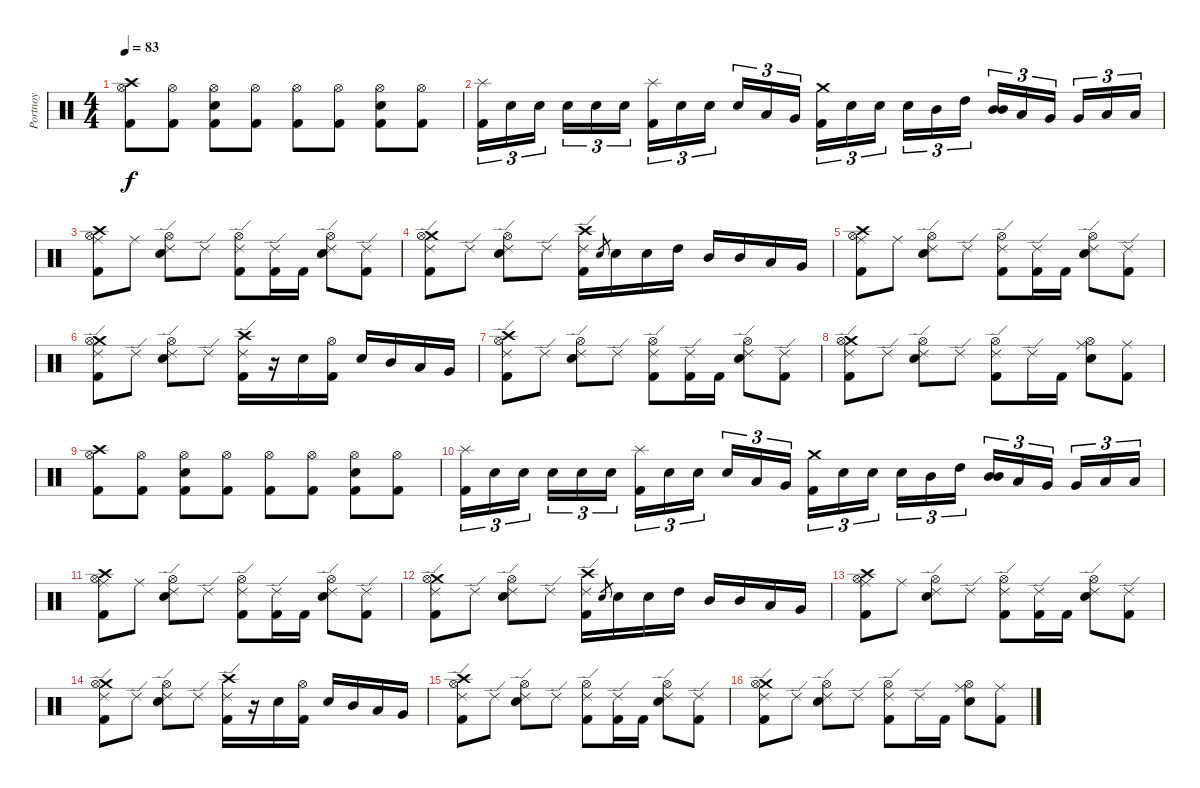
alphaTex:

\track ("Portnoy" "Portnoy") {instrument percussion}
\staff {score}
\articulation defaults
\ts (4 4)
\tempo 83
\clef neutral
\ks c
("Hi-Hat (open)" "Crash high (hit)" "Kick (hit) 2").8{dy f} ("Hi-Hat (open)" "Kick (hit) 2").8 ("Hi-Hat (open)" "Electric Snare (hit)" "Kick (hit) 2").8 ("Hi-Hat (open)" "Kick (hit) 2").8 ("Hi-Hat (open)" "Kick (hit) 2").8 ("Hi-Hat (open)" "Kick (hit) 2").8 ("Hi-Hat (open)" "Electric Snare (hit)" "Kick (hit) 2").8 ("Hi-Hat (open)" "Kick (hit) 2").8 |
("Splash (hit)" "Kick (hit) 2").16{tu (3 2)} "Electric Snare (hit)".16{tu (3 2)} "Electric Snare (hit)".16{tu (3 2)} "Electric Snare (hit)".16{tu (3 2)} "Electric Snare (hit)".16{tu (3 2)} "Electric Snare (hit)".16{tu (3 2)} ("Splash (hit)" "Kick (hit) 2").16{tu (3 2)} "Electric Snare (hit)".16{tu (3 2)} "Electric Snare (hit)".16{tu (3 2)} "Electric Snare (hit)".16{tu (3 2)} "Low Tom (hit)".16{tu (3 2)} "Very Low Tom (hit)".16{tu (3 2)} ("Crash medium (hit)" "Kick (hit) 2").16{tu (3 2)} "Electric Snare (hit)".16{tu (3 2)} "Electric Snare (hit)".16{tu (3 2)} "Electric Snare (hit)".16{tu (3 2)} "Mid Tom (hit)".16{tu (3 2)} "High Tom (hit)".16{tu (3 2)} ("Mid Tom (hit)" "Mid Tom (hit)").16{tu (3 2)} "Low Tom (hit)".16{tu (3 2)} "Very Low Tom (hit)".16{tu (3 2)} "Very Low Tom (hit)".16{tu (3 2)} "Low Floor Tom (hit)".16{tu (3 2)} "Low Floor Tom (hit)".16{tu (3 2)} |
("Crash high (hit)" "Hi-Hat (open)" "Ride (middle)" "Kick (hit) 2").8 "Ride (middle)".8 ("Hi-Hat (open)" "Ride (edge) 2" "Electric Snare (hit)").8 "Ride (edge) 2".8 ("Hi-Hat (open)" "Ride (edge) 2" "Kick (hit) 2").8 ("Ride (edge) 2" "Kick (hit) 2").16 "Kick (hit) 2".16 ("Hi-Hat (open)" "Ride (edge) 2" "Electric Snare (hit)").8 ("Ride (edge) 2" "Kick (hit) 2").8 |
("Crash medium (hit)" "Hi-Hat (open)" "Ride (edge) 2" "Kick (hit) 2").8 "Ride (edge) 2".8 ("Hi-Hat (open)" "Ride (edge) 2" "Electric Snare (hit)").8 "Ride (edge) 2".8 ("Crash high (hit)" "Ride (edge) 2" "Kick (hit) 2").16 "Electric Snare (hit)".8{gr} "Electric Snare (hit)".16 "Electric Snare (hit)".16 "High Tom (hit)".16 "Mid Tom (hit)".16 "Mid Tom (hit)".16 "Low Tom (hit)".16 "Very Low Tom (hit)".16 |
("Crash high (hit)" "Hi-Hat (open)" "Ride (middle)" "Kick (hit) 2").8 "Ride (middle)".8 ("Hi-Hat (open)" "Ride (edge) 2" "Electric Snare (hit)").8 "Ride (edge) 2".8 ("Hi-Hat (open)" "Ride (edge) 2" "Kick (hit) 2").8 ("Ride (edge) 2" "Kick (hit) 2").16 "Kick (hit) 2".16 ("Hi-Hat (open)" "Ride (edge) 2" "Electric Snare (hit)").8 ("Ride (edge) 2" "Kick (hit) 2").8 |
("Crash medium (hit)" "Hi-Hat (open)" "Ride (edge) 2" "Kick (hit) 2").8 "Ride (edge) 2".8 ("Hi-Hat (open)" "Ride (edge) 2" "Electric Snare (hit)").8 "Ride (edge) 2".8 ("Crash high (hit)" "Ride (edge) 2" "Kick (hit) 2").16 r.16 "Electric Snare (hit)".16 ("Hi-Hat (open)" "Kick (hit) 2").16 "Electric Snare (hit)".16 "Mid Tom (hit)".16 "Low Tom (hit)".16 "Very Low Tom (hit)".16 |
("Crash high (hit)" "Hi-Hat (open)" "Ride (edge) 2" "Kick (hit) 2").8 "Ride (edge) 2".8 ("Hi-Hat (open)" "Ride (edge) 2" "Electric Snare (hit)").8 "Ride (edge) 2".8 ("Hi-Hat (open)" "Ride (edge) 2" "Kick (hit) 2").8 ("Ride (edge) 2" "Kick (hit) 2").16 "Kick (hit) 2".16 ("Hi-Hat (open)" "Ride (edge) 2" "Electric Snare (hit)").8 ("Ride (edge) 2" "Kick (hit) 2").8 |
("Crash medium (hit)" "Hi-Hat (open)" "Ride (edge) 2" "Kick (hit) 2").8 "Ride (edge) 2".8 ("Hi-Hat (open)" "Ride (edge) 2" "Electric Snare (hit)").8 "Ride (edge) 2".8 ("Hi-Hat (open)" "Ride (edge) 2" "Kick (hit) 2").8 "Ride (edge) 2".16 "Kick (hit) 2".16 ("Hi-Hat (open)" "Ride (middle)" "Electric Snare (hit)").8 ("Ride (middle)" "Kick (hit) 2").8 |
("Hi-Hat (open)" "Crash high (hit)" "Kick (hit) 2").8 ("Hi-Hat (open)" "Kick (hit) 2").8 ("Hi-Hat (open)" "Electric Snare (hit)" "Kick (hit) 2").8 ("Hi-Hat (open)" "Kick (hit) 2").8 ("Hi-Hat (open)" "Kick (hit) 2").8 ("Hi-Hat (open)" "Kick (hit) 2").8 ("Hi-Hat (open)" "Electric Snare (hit)" "Kick (hit) 2").8 ("Hi-Hat (open)" "Kick (hit) 2").8 |
("Splash (hit)" "Kick (hit) 2").16{tu (3 2)} "Electric Snare (hit)".16{tu (3 2)} "Electric Snare (hit)".16{tu (3 2)} "Electric Snare (hit)".16{tu (3 2)} "Electric Snare (hit)".16{tu (3 2)} "Electric Snare (hit)".16{tu (3 2)} ("Splash (hit)" "Kick (hit) 2").16{tu (3 2)} "Electric Snare (hit)".16{tu (3 2)} "Electric Snare (hit)".16{tu (3 2)} "Electric Snare (hit)".16{tu (3 2)} "Low Tom (hit)".16{tu (3 2)} "Very Low Tom (hit)".16{tu (3 2)} ("Crash medium (hit)" "Kick (hit) 2").16{tu (3 2)} "Electric Snare (hit)".16{tu (3 2)} "Electric Snare (hit)".16{tu (3 2)} "Electric Snare (hit)".16{tu (3 2)} "Mid Tom (hit)".16{tu (3 2)} "High Tom (hit)".16{tu (3 2)} ("Mid Tom (hit)" "Mid Tom (hit)").16{tu (3 2)} "Low Tom (hit)".16{tu (3 2)} "Very Low Tom (hit)".16{tu (3 2)} "Very Low Tom (hit)".16{tu (3 2)} "Low Floor Tom (hit)".16{tu (3 2)} "Low Floor Tom (hit)".16{tu (3 2)} |
("Crash high (hit)" "Hi-Hat (open)" "Ride (middle)" "Kick (hit) 2").8 "Ride (middle)".8 ("Hi-Hat (open)" "Ride (edge) 2" "Electric Snare (hit)").8 "Ride (edge) 2".8 ("Hi-Hat (open)" "Ride (edge) 2" "Kick (hit) 2").8 ("Ride (edge) 2" "Kick (hit) 2").16 "Kick (hit) 2".16 ("Hi-Hat (open)" "Ride (edge) 2" "Electric Snare (hit)").8 ("Ride (edge) 2" "Kick (hit) 2").8 |
("Crash medium (hit)" "Hi-Hat (open)" "Ride (edge) 2" "Kick (hit) 2").8 "Ride (edge) 2".8 ("Hi-Hat (open)" "Ride (edge) 2" "Electric Snare (hit)").8 "Ride (edge) 2".8 ("Crash high (hit)" "Ride (edge) 2" "Kick (hit) 2").16 "Electric Snare (hit)".8{gr} "Electric Snare (hit)".16 "Electric Snare (hit)".16 "High Tom (hit)".16 "Mid Tom (hit)".16 "Mid Tom (hit)".16 "Low Tom (hit)".16 "Very Low Tom (hit)".16 |
("Crash high (hit)" "Hi-Hat (open)" "Ride (middle)" "Kick (hit) 2").8 "Ride (middle)".8 ("Hi-Hat (open)" "Ride (edge) 2" "Electric Snare (hit)").8 "Ride (edge) 2".8 ("Hi-Hat (open)" "Ride (edge) 2" "Kick (hit) 2").8 ("Ride (edge) 2" "Kick (hit) 2").16 "Kick (hit) 2".16 ("Hi-Hat (open)" "Ride (edge) 2" "Electric Snare (hit)").8 ("Ride (edge) 2" "Kick (hit) 2").8 |
("Crash medium (hit)" "Hi-Hat (open)" "Ride (edge) 2" "Kick (hit) 2").8 "Ride (edge) 2".8 ("Hi-Hat (open)" "Ride (edge) 2" "Electric Snare (hit)").8 "Ride (edge) 2".8 ("Crash high (hit)" "Ride (edge) 2" "Kick (hit) 2").16 r.16 "Electric Snare (hit)".16 ("Hi-Hat (open)" "Kick (hit) 2").16 "Electric Snare (hit)".16 "Mid Tom (hit)".16 "Low Tom (hit)".16 "Very Low Tom (hit)".16 |
("Crash high (hit)" "Hi-Hat (open)" "Ride (edge) 2" "Kick (hit) 2").8 "Ride (edge) 2".8 ("Hi-Hat (open)" "Ride (edge) 2" "Electric Snare (hit)").8 "Ride (edge) 2".8 ("Hi-Hat (open)" "Ride (edge) 2" "Kick (hit) 2").8 ("Ride (edge) 2" "Kick (hit) 2").16 "Kick (hit) 2".16 ("Hi-Hat (open)" "Ride (edge) 2" "Electric Snare (hit)").8 ("Ride (edge) 2" "Kick (hit) 2").8 |
("Crash medium (hit)" "Hi-Hat (open)" "Ride (edge) 2" "Kick (hit) 2").8 "Ride (edge) 2".8 ("Hi-Hat (open)" "Ride (edge) 2" "Electric Snare (hit)").8 "Ride (edge) 2".8 ("Hi-Hat (open)" "Ride (edge) 2" "Kick (hit) 2").8 "Ride (edge) 2".16 "Kick (hit) 2".16 ("Hi-Hat (open)" "Ride (middle)" "Electric Snare (hit)").8 ("Ride (middle)" "Kick (hit) 2").8
